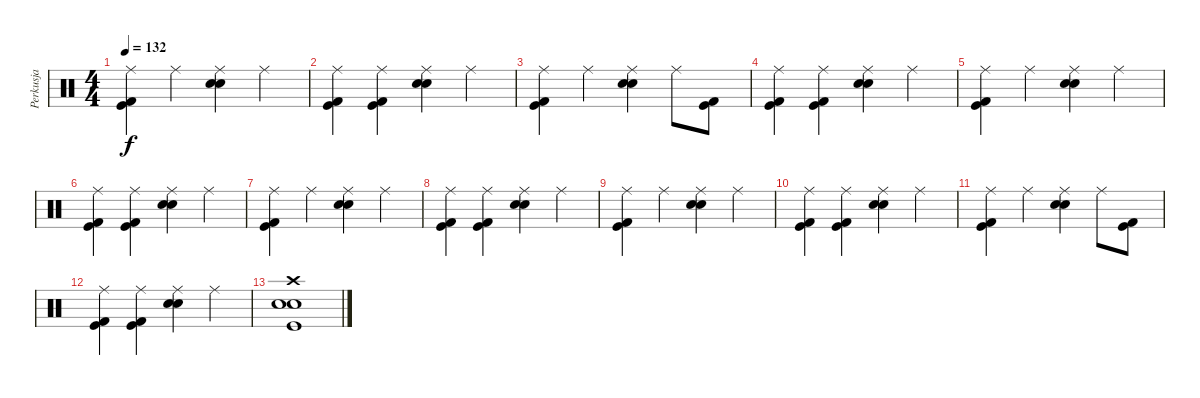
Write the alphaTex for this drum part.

\track ("Perkusja" "Perkusja") {instrument percussion}
\staff {score}
\articulation defaults
\ts (4 4)
\tempo 132
\clef neutral
\ks c
("Kick (hit)" "Kick (hit) 2" "Ride (middle)").4{dy f} "Ride (middle)".4 ("Snare (hit) 2" "Electric Snare (hit)" "Ride (middle)").4 "Ride (middle)".4 |
("Kick (hit)" "Kick (hit) 2" "Ride (middle)").4 ("Kick (hit)" "Kick (hit) 2" "Ride (middle)").4 ("Snare (hit) 2" "Electric Snare (hit)" "Ride (middle)").4 "Ride (middle)".4 |
("Kick (hit)" "Kick (hit) 2" "Ride (middle)").4 "Ride (middle)".4 ("Snare (hit) 2" "Electric Snare (hit)" "Ride (middle)").4 "Ride (middle)".8 ("Kick (hit)" "Kick (hit) 2").8 |
("Kick (hit)" "Kick (hit) 2" "Ride (middle)").4 ("Kick (hit)" "Kick (hit) 2" "Ride (middle)").4 ("Snare (hit) 2" "Electric Snare (hit)" "Ride (middle)").4 "Ride (middle)".4 |
("Kick (hit)" "Kick (hit) 2" "Ride (middle)").4 "Ride (middle)".4 ("Snare (hit) 2" "Electric Snare (hit)" "Ride (middle)").4 "Ride (middle)".4 |
("Kick (hit)" "Kick (hit) 2" "Ride (middle)").4 ("Kick (hit)" "Kick (hit) 2" "Ride (middle)").4 ("Snare (hit) 2" "Electric Snare (hit)" "Ride (middle)").4 "Ride (middle)".4 |
("Kick (hit)" "Kick (hit) 2" "Ride (middle)").4 "Ride (middle)".4 ("Snare (hit) 2" "Electric Snare (hit)" "Ride (middle)").4 "Ride (middle)".4 |
("Kick (hit)" "Kick (hit) 2" "Ride (middle)").4 ("Kick (hit)" "Kick (hit) 2" "Ride (middle)").4 ("Snare (hit) 2" "Electric Snare (hit)" "Ride (middle)").4 "Ride (middle)".4 |
("Kick (hit)" "Kick (hit) 2" "Ride (middle)").4 "Ride (middle)".4 ("Snare (hit) 2" "Electric Snare (hit)" "Ride (middle)").4 "Ride (middle)".4 |
("Kick (hit)" "Kick (hit) 2" "Ride (middle)").4 ("Kick (hit)" "Kick (hit) 2" "Ride (middle)").4 ("Snare (hit) 2" "Electric Snare (hit)" "Ride (middle)").4 "Ride (middle)".4 |
("Kick (hit)" "Kick (hit) 2" "Ride (middle)").4 "Ride (middle)".4 ("Snare (hit) 2" "Electric Snare (hit)" "Ride (middle)").4 "Ride (middle)".8 ("Kick (hit)" "Kick (hit) 2").8 |
("Kick (hit)" "Kick (hit) 2" "Ride (middle)").4 ("Kick (hit)" "Kick (hit) 2" "Ride (middle)").4 ("Snare (hit) 2" "Electric Snare (hit)" "Ride (middle)").4 "Ride (middle)".4 |
("Electric Snare (hit)" "Snare (hit) 2" "Kick (hit)" "Crash high (hit)").1
